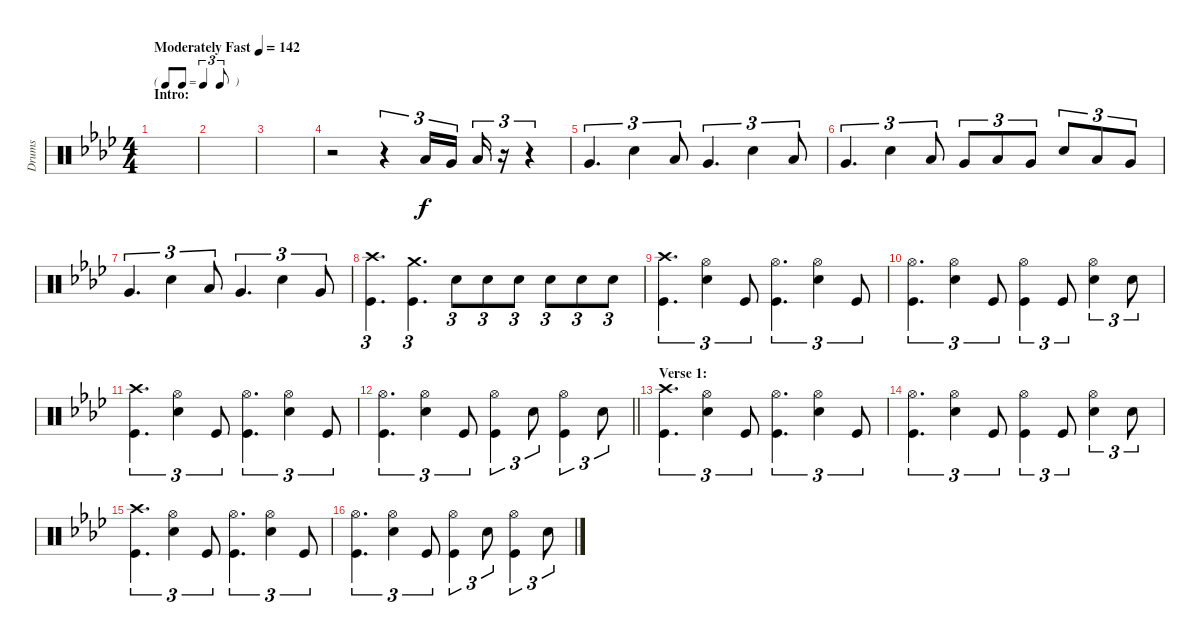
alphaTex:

\track ("Drums" "Drums") {instrument percussion}
\staff {score}
\articulation defaults
\ts (4 4)
\tf triplet8th
\section ("" "Intro:")
\tempo (142 "Moderately Fast")
\clef neutral
\ks ab
|
|
|
r.2 r.4{tu (3 2)} "Low Floor Tom (hit)".16{tu (3 2)} "Very Low Tom (hit)".16{tu (3 2)} "Low Floor Tom (hit)".16{tu (3 2)} r.16{tu (3 2)} r.4{tu (3 2)} |
"Very Low Tom (hit)".4{d tu (3 2)} "Snare (hit) 2".4{tu (3 2)} "Low Floor Tom (hit)".8{tu (3 2)} "Very Low Tom (hit)".4{d tu (3 2)} "Snare (hit) 2".4{tu (3 2)} "Low Floor Tom (hit)".8{tu (3 2)} |
"Very Low Tom (hit)".4{d tu (3 2)} "Snare (hit) 2".4{tu (3 2)} "Low Floor Tom (hit)".8{tu (3 2)} "Very Low Tom (hit)".8{tu (3 2)} "Low Floor Tom (hit)".8{tu (3 2)} "Very Low Tom (hit)".8{tu (3 2)} "Snare (hit) 2".8{tu (3 2)} "Low Floor Tom (hit)".8{tu (3 2)} "Very Low Tom (hit)".8{tu (3 2)} |
"Very Low Tom (hit)".4{d tu (3 2)} "Snare (hit) 2".4{tu (3 2)} "Low Floor Tom (hit)".8{tu (3 2)} "Very Low Tom (hit)".4{d tu (3 2)} "Snare (hit) 2".4{tu (3 2)} "Very Low Tom (hit)".8{tu (3 2)} |
("Kick (hit)" "Crash high (hit)").4{d tu (3 2)} ("Kick (hit)" "Crash medium (hit)").4{d tu (3 2)} "Snare (hit) 2".8{tu (3 2)} "Snare (hit) 2".8{tu (3 2)} "Snare (hit) 2".8{tu (3 2)} "Snare (hit) 2".8{tu (3 2)} "Snare (hit) 2".8{tu (3 2)} "Snare (hit) 2".8{tu (3 2)} |
("Crash high (hit)" "Kick (hit)").4{d tu (3 2)} ("Hi-Hat (open)" "Snare (hit) 2").4{tu (3 2)} "Kick (hit)".8{tu (3 2)} ("Kick (hit)" "Hi-Hat (open)").4{d tu (3 2)} ("Snare (hit) 2" "Hi-Hat (open)").4{tu (3 2)} "Kick (hit)".8{tu (3 2)} |
("Kick (hit)" "Hi-Hat (open)").4{d tu (3 2)} ("Hi-Hat (open)" "Snare (hit) 2").4{tu (3 2)} "Kick (hit)".8{tu (3 2)} ("Kick (hit)" "Hi-Hat (open)").4{tu (3 2)} "Kick (hit)".8{tu (3 2)} ("Snare (hit) 2" "Hi-Hat (open)").4{tu (3 2)} "Snare (hit) 2".8{tu (3 2)} |
("Crash high (hit)" "Kick (hit)").4{d tu (3 2)} ("Hi-Hat (open)" "Snare (hit) 2").4{tu (3 2)} "Kick (hit)".8{tu (3 2)} ("Kick (hit)" "Hi-Hat (open)").4{d tu (3 2)} ("Snare (hit) 2" "Hi-Hat (open)").4{tu (3 2)} "Kick (hit)".8{tu (3 2)} |
\barLineRight lightlight
("Kick (hit)" "Hi-Hat (open)").4{d tu (3 2)} ("Snare (hit) 2" "Hi-Hat (open)").4{tu (3 2)} "Kick (hit)".8{tu (3 2)} ("Kick (hit)" "Hi-Hat (open)").4{tu (3 2)} "Snare (hit) 2".8{tu (3 2)} ("Kick (hit)" "Hi-Hat (open)").4{tu (3 2)} "Snare (hit) 2".8{tu (3 2)} |
\section ("" "Verse 1:")
("Crash high (hit)" "Kick (hit)").4{d tu (3 2)} ("Hi-Hat (open)" "Snare (hit) 2").4{tu (3 2)} "Kick (hit)".8{tu (3 2)} ("Kick (hit)" "Hi-Hat (open)").4{d tu (3 2)} ("Snare (hit) 2" "Hi-Hat (open)").4{tu (3 2)} "Kick (hit)".8{tu (3 2)} |
("Kick (hit)" "Hi-Hat (open)").4{d tu (3 2)} ("Hi-Hat (open)" "Snare (hit) 2").4{tu (3 2)} "Kick (hit)".8{tu (3 2)} ("Kick (hit)" "Hi-Hat (open)").4{tu (3 2)} "Kick (hit)".8{tu (3 2)} ("Snare (hit) 2" "Hi-Hat (open)").4{tu (3 2)} "Snare (hit) 2".8{tu (3 2)} |
("Crash high (hit)" "Kick (hit)").4{d tu (3 2)} ("Hi-Hat (open)" "Snare (hit) 2").4{tu (3 2)} "Kick (hit)".8{tu (3 2)} ("Kick (hit)" "Hi-Hat (open)").4{d tu (3 2)} ("Snare (hit) 2" "Hi-Hat (open)").4{tu (3 2)} "Kick (hit)".8{tu (3 2)} |
("Kick (hit)" "Hi-Hat (open)").4{d tu (3 2)} ("Snare (hit) 2" "Hi-Hat (open)").4{tu (3 2)} "Kick (hit)".8{tu (3 2)} ("Kick (hit)" "Hi-Hat (open)").4{tu (3 2)} "Snare (hit) 2".8{tu (3 2)} ("Kick (hit)" "Hi-Hat (open)").4{tu (3 2)} "Snare (hit) 2".8{tu (3 2)}
